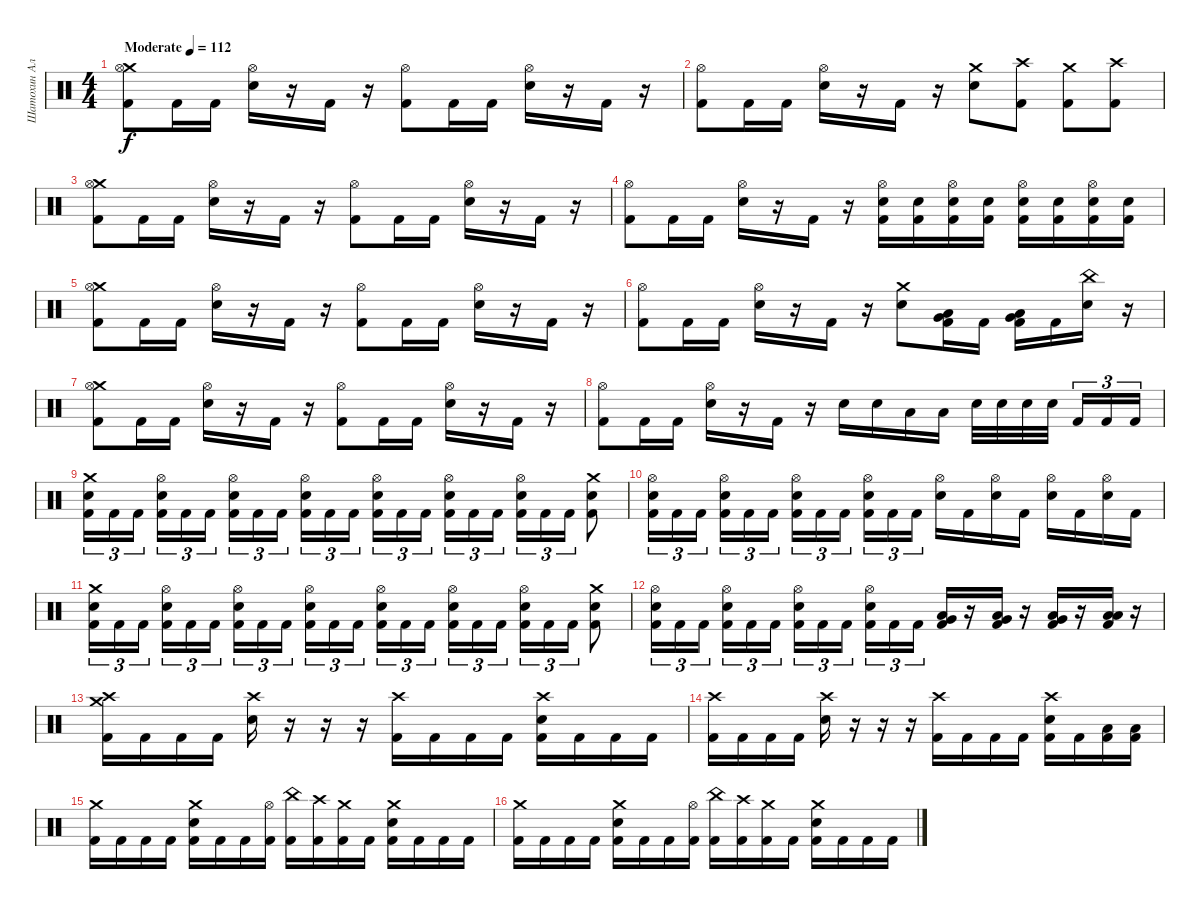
\track ("Шатохин Алексей" "Шатохин Ал") {instrument percussion}
\staff {score}
\articulation defaults
\ts (4 4)
\tempo (112 "Moderate")
\clef neutral
\ks c
("Crash medium (hit)" "Hi-Hat (open)" "Kick (hit) 2").8{dy f} "Kick (hit) 2".16 "Kick (hit) 2".16 ("Hi-Hat (open)" "Electric Snare (hit)").16 r.16 "Kick (hit) 2".16 r.16 ("Hi-Hat (open)" "Kick (hit) 2").8 "Kick (hit) 2".16 "Kick (hit) 2".16 ("Hi-Hat (open)" "Electric Snare (hit)").16 r.16 "Kick (hit) 2".16 r.16 |
("Hi-Hat (open)" "Kick (hit) 2").8 "Kick (hit) 2".16 "Kick (hit) 2".16 ("Hi-Hat (open)" "Electric Snare (hit)").16 r.16 "Kick (hit) 2".16 r.16 ("Crash medium (hit)" "Electric Snare (hit)").8 ("Crash high (hit)" "Kick (hit) 2").8 ("Crash medium (hit)" "Kick (hit) 2").8 ("Crash high (hit)" "Kick (hit) 2").8 |
("Crash medium (hit)" "Hi-Hat (open)" "Kick (hit) 2").8 "Kick (hit) 2".16 "Kick (hit) 2".16 ("Hi-Hat (open)" "Electric Snare (hit)").16 r.16 "Kick (hit) 2".16 r.16 ("Hi-Hat (open)" "Kick (hit) 2").8 "Kick (hit) 2".16 "Kick (hit) 2".16 ("Hi-Hat (open)" "Electric Snare (hit)").16 r.16 "Kick (hit) 2".16 r.16 |
("Hi-Hat (open)" "Kick (hit) 2").8 "Kick (hit) 2".16 "Kick (hit) 2".16 ("Hi-Hat (open)" "Electric Snare (hit)").16 r.16 "Kick (hit) 2".16 r.16 ("Hi-Hat (open)" "Electric Snare (hit)" "Kick (hit) 2").16 ("Electric Snare (hit)" "Kick (hit) 2").16 ("Hi-Hat (open)" "Electric Snare (hit)" "Kick (hit) 2").16 ("Electric Snare (hit)" "Kick (hit) 2").16 ("Hi-Hat (open)" "Electric Snare (hit)" "Kick (hit) 2").16 ("Electric Snare (hit)" "Kick (hit) 2").16 ("Hi-Hat (open)" "Electric Snare (hit)" "Kick (hit) 2").16 ("Electric Snare (hit)" "Kick (hit) 2").16 |
("Crash medium (hit)" "Hi-Hat (open)" "Kick (hit) 2").8 "Kick (hit) 2".16 "Kick (hit) 2".16 ("Hi-Hat (open)" "Electric Snare (hit)").16 r.16 "Kick (hit) 2".16 r.16 ("Hi-Hat (open)" "Kick (hit) 2").8 "Kick (hit) 2".16 "Kick (hit) 2".16 ("Hi-Hat (open)" "Electric Snare (hit)").16 r.16 "Kick (hit) 2".16 r.16 |
("Hi-Hat (open)" "Kick (hit) 2").8 "Kick (hit) 2".16 "Kick (hit) 2".16 ("Hi-Hat (open)" "Electric Snare (hit)").16 r.16 "Kick (hit) 2".16 r.16 ("Crash medium (hit)" "Electric Snare (hit)").8 ("Low Tom (hit)" "Very Low Tom (hit)" "Kick (hit) 2").16 "Kick (hit) 2".16 ("Low Tom (hit)" "Very Low Tom (hit)" "Kick (hit) 2").16 "Kick (hit) 2".16 ("China (hit)" "Electric Snare (hit)").16 r.16 |
("Crash medium (hit)" "Hi-Hat (open)" "Kick (hit) 2").8 "Kick (hit) 2".16 "Kick (hit) 2".16 ("Hi-Hat (open)" "Electric Snare (hit)").16 r.16 "Kick (hit) 2".16 r.16 ("Hi-Hat (open)" "Kick (hit) 2").8 "Kick (hit) 2".16 "Kick (hit) 2".16 ("Hi-Hat (open)" "Electric Snare (hit)").16 r.16 "Kick (hit) 2".16 r.16 |
("Hi-Hat (open)" "Kick (hit) 2").8 "Kick (hit) 2".16 "Kick (hit) 2".16 ("Hi-Hat (open)" "Electric Snare (hit)").16 r.16 "Kick (hit) 2".16 r.16 "Electric Snare (hit)".16 "Electric Snare (hit)".16 "Low Tom (hit)".16 "Low Tom (hit)".16 "Electric Snare (hit)".32 "Electric Snare (hit)".32 "Electric Snare (hit)".32 "Electric Snare (hit)".32{beam splitsecondary} "Kick (hit) 2".16{tu (3 2)} "Kick (hit) 2".16{tu (3 2)} "Kick (hit) 2".16{tu (3 2)} |
("Crash medium (hit)" "Electric Snare (hit)" "Kick (hit) 2").16{tu (3 2)} "Kick (hit) 2".16{tu (3 2)} "Kick (hit) 2".16{tu (3 2) beam splitsecondary} ("Hi-Hat (open)" "Electric Snare (hit)" "Kick (hit) 2").16{tu (3 2)} "Kick (hit) 2".16{tu (3 2)} "Kick (hit) 2".16{tu (3 2)} ("Hi-Hat (open)" "Electric Snare (hit)" "Kick (hit) 2").16{tu (3 2)} "Kick (hit) 2".16{tu (3 2)} "Kick (hit) 2".16{tu (3 2) beam splitsecondary} ("Hi-Hat (open)" "Electric Snare (hit)" "Kick (hit) 2").16{tu (3 2)} "Kick (hit) 2".16{tu (3 2)} "Kick (hit) 2".16{tu (3 2)} ("Hi-Hat (open)" "Electric Snare (hit)" "Kick (hit) 2").16{tu (3 2)} "Kick (hit) 2".16{tu (3 2)} "Kick (hit) 2".16{tu (3 2) beam splitsecondary} ("Hi-Hat (open)" "Electric Snare (hit)" "Kick (hit) 2").16{tu (3 2)} "Kick (hit) 2".16{tu (3 2)} "Kick (hit) 2".16{tu (3 2)} ("Hi-Hat (open)" "Electric Snare (hit)" "Kick (hit) 2").16{tu (3 2)} "Kick (hit) 2".16{tu (3 2)} "Kick (hit) 2".16{tu (3 2)} ("Crash medium (hit)" "Electric Snare (hit)" "Kick (hit) 2").8 |
("Hi-Hat (open)" "Electric Snare (hit)" "Kick (hit) 2").16{tu (3 2)} "Kick (hit) 2".16{tu (3 2)} "Kick (hit) 2".16{tu (3 2) beam splitsecondary} ("Hi-Hat (open)" "Electric Snare (hit)" "Kick (hit) 2").16{tu (3 2)} "Kick (hit) 2".16{tu (3 2)} "Kick (hit) 2".16{tu (3 2)} ("Hi-Hat (open)" "Electric Snare (hit)" "Kick (hit) 2").16{tu (3 2)} "Kick (hit) 2".16{tu (3 2)} "Kick (hit) 2".16{tu (3 2) beam splitsecondary} ("Hi-Hat (open)" "Electric Snare (hit)" "Kick (hit) 2").16{tu (3 2)} "Kick (hit) 2".16{tu (3 2)} "Kick (hit) 2".16{tu (3 2)} ("Hi-Hat (open)" "Electric Snare (hit)").16 "Kick (hit) 2".16 ("Hi-Hat (open)" "Electric Snare (hit)").16 "Kick (hit) 2".16 ("Hi-Hat (open)" "Electric Snare (hit)").16 "Kick (hit) 2".16 ("Hi-Hat (open)" "Electric Snare (hit)").16 "Kick (hit) 2".16 |
("Crash medium (hit)" "Electric Snare (hit)" "Kick (hit) 2").16{tu (3 2)} "Kick (hit) 2".16{tu (3 2)} "Kick (hit) 2".16{tu (3 2) beam splitsecondary} ("Hi-Hat (open)" "Electric Snare (hit)" "Kick (hit) 2").16{tu (3 2)} "Kick (hit) 2".16{tu (3 2)} "Kick (hit) 2".16{tu (3 2)} ("Hi-Hat (open)" "Electric Snare (hit)" "Kick (hit) 2").16{tu (3 2)} "Kick (hit) 2".16{tu (3 2)} "Kick (hit) 2".16{tu (3 2) beam splitsecondary} ("Hi-Hat (open)" "Electric Snare (hit)" "Kick (hit) 2").16{tu (3 2)} "Kick (hit) 2".16{tu (3 2)} "Kick (hit) 2".16{tu (3 2)} ("Hi-Hat (open)" "Electric Snare (hit)" "Kick (hit) 2").16{tu (3 2)} "Kick (hit) 2".16{tu (3 2)} "Kick (hit) 2".16{tu (3 2) beam splitsecondary} ("Hi-Hat (open)" "Electric Snare (hit)" "Kick (hit) 2").16{tu (3 2)} "Kick (hit) 2".16{tu (3 2)} "Kick (hit) 2".16{tu (3 2)} ("Hi-Hat (open)" "Electric Snare (hit)" "Kick (hit) 2").16{tu (3 2)} "Kick (hit) 2".16{tu (3 2)} "Kick (hit) 2".16{tu (3 2)} ("Crash medium (hit)" "Electric Snare (hit)" "Kick (hit) 2").8 |
("Hi-Hat (open)" "Electric Snare (hit)" "Kick (hit) 2").16{tu (3 2)} "Kick (hit) 2".16{tu (3 2)} "Kick (hit) 2".16{tu (3 2) beam splitsecondary} ("Hi-Hat (open)" "Electric Snare (hit)" "Kick (hit) 2").16{tu (3 2)} "Kick (hit) 2".16{tu (3 2)} "Kick (hit) 2".16{tu (3 2)} ("Hi-Hat (open)" "Electric Snare (hit)" "Kick (hit) 2").16{tu (3 2)} "Kick (hit) 2".16{tu (3 2)} "Kick (hit) 2".16{tu (3 2) beam splitsecondary} ("Hi-Hat (open)" "Electric Snare (hit)" "Kick (hit) 2").16{tu (3 2)} "Kick (hit) 2".16{tu (3 2)} "Kick (hit) 2".16{tu (3 2)} ("Low Tom (hit)" "Very Low Tom (hit)" "Kick (hit) 2").16 r.16 ("Low Tom (hit)" "Very Low Tom (hit)" "Kick (hit) 2").16 r.16 ("Low Floor Tom (hit)" "Very Low Tom (hit)" "Kick (hit) 2").16 r.16 ("Low Floor Tom (hit)" "Low Floor Tom (hit)" "Kick (hit) 2").16 r.16 |
("Crash medium (hit)" "Crash high (hit)" "Kick (hit) 2").16 "Kick (hit) 2".16 "Kick (hit) 2".16 "Kick (hit) 2".16 ("Crash high (hit)" "Electric Snare (hit)").16 r.16 r.16 r.16 ("Crash high (hit)" "Kick (hit) 2").16 "Kick (hit) 2".16 "Kick (hit) 2".16 "Kick (hit) 2".16 ("Crash high (hit)" "Electric Snare (hit)" "Kick (hit) 2").16 "Kick (hit) 2".16 "Kick (hit) 2".16 "Kick (hit) 2".16 |
("Crash high (hit)" "Kick (hit) 2").16 "Kick (hit) 2".16 "Kick (hit) 2".16 "Kick (hit) 2".16 ("Crash high (hit)" "Electric Snare (hit)").16 r.16 r.16 r.16 ("Crash high (hit)" "Kick (hit) 2").16 "Kick (hit) 2".16 "Kick (hit) 2".16 "Kick (hit) 2".16 ("Crash high (hit)" "Electric Snare (hit)" "Kick (hit) 2").16 "Kick (hit) 2".16 ("Low Tom (hit)" "Kick (hit) 2").16 ("Low Tom (hit)" "Kick (hit) 2").16 |
("Kick (hit) 2" "Crash medium (hit)").16 "Kick (hit) 2".16 "Kick (hit) 2".16 "Kick (hit) 2".16 ("Kick (hit) 2" "Electric Snare (hit)" "Crash medium (hit)").16 "Kick (hit) 2".16 "Kick (hit) 2".16 ("Kick (hit) 2" "Hi-Hat (open)").16 ("Kick (hit) 2" "China (hit)").16 ("Kick (hit) 2" "Crash high (hit)").16 ("Kick (hit) 2" "Crash medium (hit)").16 "Kick (hit) 2".16 ("Kick (hit) 2" "Electric Snare (hit)" "Crash medium (hit)").16 "Kick (hit) 2".16 "Kick (hit) 2".16 "Kick (hit) 2".16 |
("Kick (hit) 2" "Crash medium (hit)").16 "Kick (hit) 2".16 "Kick (hit) 2".16 "Kick (hit) 2".16 ("Kick (hit) 2" "Electric Snare (hit)" "Crash medium (hit)").16 "Kick (hit) 2".16 "Kick (hit) 2".16 ("Kick (hit) 2" "Hi-Hat (open)").16 ("Kick (hit) 2" "China (hit)").16 ("Kick (hit) 2" "Crash high (hit)").16 ("Kick (hit) 2" "Crash medium (hit)").16 "Kick (hit) 2".16 ("Kick (hit) 2" "Electric Snare (hit)" "Crash medium (hit)").16 "Kick (hit) 2".16 "Kick (hit) 2".16 "Kick (hit) 2".16
